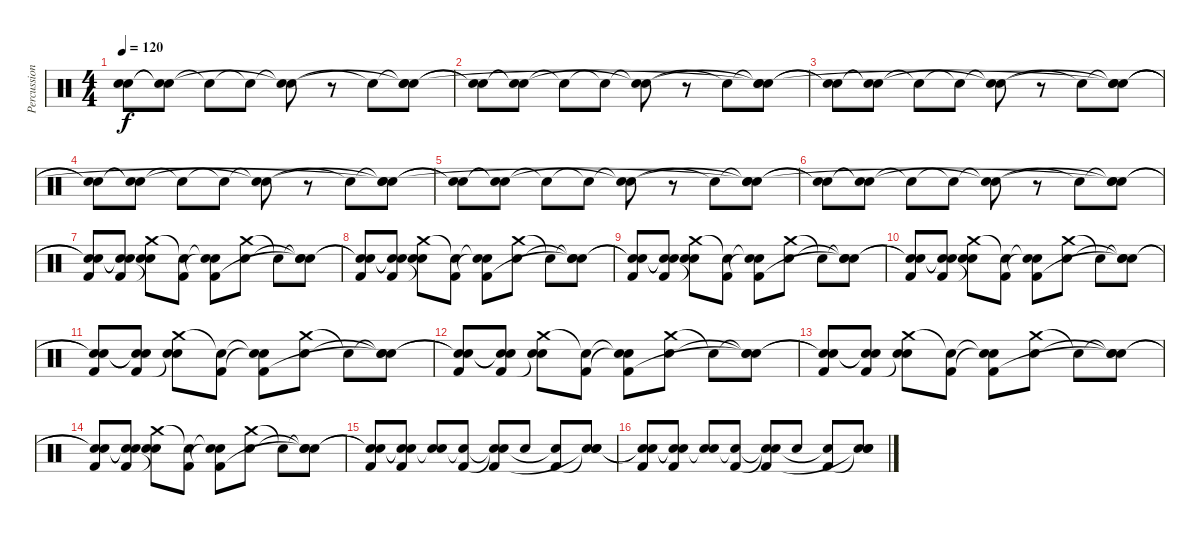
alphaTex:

\track ("Percussion" "Percussion") {instrument percussion}
\staff {score}
\articulation defaults
\ts (4 4)
\tempo 120
\clef neutral
\ks c
("Snare (hit)"{t} "Snare (hit)"{t}).8{dy f} ("Snare (hit)"{t} "Snare (hit)"{t}).8 "Snare (hit)"{t}.8 "Snare (hit)"{t}.8 ("Snare (hit)"{t} "Snare (hit)"{t}).8 r.8 "Snare (hit)"{t}.8 ("Snare (hit)"{t} "Snare (hit)"{t} "Snare (hit)"{t}).8 |
("Snare (hit)"{t} "Snare (hit)"{t}).8 ("Snare (hit)"{t} "Snare (hit)"{t}).8 "Snare (hit)"{t}.8 "Snare (hit)"{t}.8 ("Snare (hit)"{t} "Snare (hit)"{t}).8 r.8 "Snare (hit)"{t}.8 ("Snare (hit)"{t} "Snare (hit)"{t} "Snare (hit)"{t}).8 |
("Snare (hit)"{t} "Snare (hit)"{t}).8 ("Snare (hit)"{t} "Snare (hit)"{t}).8 "Snare (hit)"{t}.8 "Snare (hit)"{t}.8 ("Snare (hit)"{t} "Snare (hit)"{t}).8 r.8 "Snare (hit)"{t}.8 ("Snare (hit)"{t} "Snare (hit)"{t} "Snare (hit)"{t}).8 |
("Snare (hit)"{t} "Snare (hit)"{t}).8 ("Snare (hit)"{t} "Snare (hit)"{t}).8 "Snare (hit)"{t}.8 "Snare (hit)"{t}.8 ("Snare (hit)"{t} "Snare (hit)"{t}).8 r.8 "Snare (hit)"{t}.8 ("Snare (hit)"{t} "Snare (hit)"{t} "Snare (hit)"{t}).8 |
("Snare (hit)"{t} "Snare (hit)"{t}).8 ("Snare (hit)"{t} "Snare (hit)"{t}).8 "Snare (hit)"{t}.8 "Snare (hit)"{t}.8 ("Snare (hit)"{t} "Snare (hit)"{t}).8 r.8 "Snare (hit)"{t}.8 ("Snare (hit)"{t} "Snare (hit)"{t} "Snare (hit)"{t}).8 |
("Snare (hit)"{t} "Snare (hit)"{t}).8 ("Snare (hit)"{t} "Snare (hit)"{t}).8 "Snare (hit)"{t}.8 "Snare (hit)"{t}.8 ("Snare (hit)"{t} "Snare (hit)"{t}).8 r.8 "Snare (hit)"{t}.8 ("Snare (hit)"{t} "Snare (hit)"{t} "Snare (hit)"{t}).8 |
("Snare (hit)"{t} "Snare (hit)"{t} "Kick (hit) 2").8 ("Snare (hit)"{t} "Snare (hit)"{t} "Kick (hit) 2").8 ("Crash medium (hit)" "Snare (hit) 2" "Snare (hit)"{t}).8 ("Snare (hit)"{t} "Kick (hit) 2").8 ("Snare (hit)"{t} "Snare (hit)"{t} "Kick (hit) 2").8 ("Crash medium (hit)" "Snare (hit) 2").8 "Snare (hit)"{t}.8 ("Snare (hit)"{t} "Snare (hit)"{t} "Snare (hit)"{t}).8 |
("Snare (hit)"{t} "Snare (hit)"{t} "Kick (hit) 2").8 ("Snare (hit)"{t} "Snare (hit)"{t} "Kick (hit) 2").8 ("Crash medium (hit)" "Snare (hit) 2" "Snare (hit)"{t}).8 ("Snare (hit)"{t} "Kick (hit) 2").8 ("Snare (hit)"{t} "Snare (hit)"{t} "Kick (hit) 2").8 ("Crash medium (hit)" "Snare (hit) 2").8 "Snare (hit)"{t}.8 ("Snare (hit)"{t} "Snare (hit)"{t} "Snare (hit)"{t}).8 |
("Snare (hit)"{t} "Snare (hit)"{t} "Kick (hit) 2").8 ("Snare (hit)"{t} "Snare (hit)"{t} "Kick (hit) 2").8 ("Crash medium (hit)" "Snare (hit) 2" "Snare (hit)"{t}).8 ("Snare (hit)"{t} "Kick (hit) 2").8 ("Snare (hit)"{t} "Snare (hit)"{t} "Kick (hit) 2").8 ("Crash medium (hit)" "Snare (hit) 2").8 "Snare (hit)"{t}.8 ("Snare (hit)"{t} "Snare (hit)"{t} "Snare (hit)"{t}).8 |
("Snare (hit)"{t} "Snare (hit)"{t} "Kick (hit) 2").8 ("Snare (hit)"{t} "Snare (hit)"{t} "Kick (hit) 2").8 ("Crash medium (hit)" "Snare (hit) 2" "Snare (hit)"{t}).8 ("Snare (hit)"{t} "Kick (hit) 2").8 ("Snare (hit)"{t} "Snare (hit)"{t} "Kick (hit) 2").8 ("Crash medium (hit)" "Snare (hit) 2").8 "Snare (hit)"{t}.8 ("Snare (hit)"{t} "Snare (hit)"{t} "Snare (hit)"{t}).8 |
("Snare (hit)"{t} "Snare (hit)"{t} "Kick (hit) 2").8 ("Snare (hit)"{t} "Snare (hit)"{t} "Kick (hit) 2").8 ("Crash medium (hit)" "Snare (hit) 2" "Snare (hit)"{t}).8 ("Snare (hit)"{t} "Kick (hit) 2").8 ("Snare (hit)"{t} "Snare (hit)"{t} "Kick (hit) 2").8 ("Crash medium (hit)" "Snare (hit) 2").8 "Snare (hit)"{t}.8 ("Snare (hit)"{t} "Snare (hit)"{t} "Snare (hit)"{t}).8 |
("Snare (hit)"{t} "Snare (hit)"{t} "Kick (hit) 2").8 ("Snare (hit)"{t} "Snare (hit)"{t} "Kick (hit) 2").8 ("Crash medium (hit)" "Snare (hit) 2" "Snare (hit)"{t}).8 ("Snare (hit)"{t} "Kick (hit) 2").8 ("Snare (hit)"{t} "Snare (hit)"{t} "Kick (hit) 2").8 ("Crash medium (hit)" "Snare (hit) 2").8 "Snare (hit)"{t}.8 ("Snare (hit)"{t} "Snare (hit)"{t} "Snare (hit)"{t}).8 |
("Snare (hit)"{t} "Snare (hit)"{t} "Kick (hit) 2").8 ("Snare (hit)"{t} "Snare (hit)"{t} "Kick (hit) 2").8 ("Crash medium (hit)" "Snare (hit) 2" "Snare (hit)"{t}).8 ("Snare (hit)"{t} "Kick (hit) 2").8 ("Snare (hit)"{t} "Snare (hit)"{t} "Kick (hit) 2").8 ("Crash medium (hit)" "Snare (hit) 2").8 "Snare (hit)"{t}.8 ("Snare (hit)"{t} "Snare (hit)"{t} "Snare (hit)"{t}).8 |
("Snare (hit)"{t} "Snare (hit)"{t} "Kick (hit) 2").8 ("Snare (hit)"{t} "Snare (hit)"{t} "Kick (hit) 2").8 ("Crash medium (hit)" "Snare (hit) 2" "Snare (hit)"{t}).8 ("Snare (hit)"{t} "Kick (hit) 2").8 ("Snare (hit)"{t} "Snare (hit)"{t} "Kick (hit) 2").8 ("Crash medium (hit)" "Snare (hit) 2").8 "Snare (hit)"{t}.8 ("Snare (hit)"{t} "Snare (hit)"{t} "Snare (hit)"{t}).8 |
("Snare (hit)"{t} "Snare (hit)"{t} "Kick (hit) 2").8 ("Snare (hit)"{t} "Snare (hit)"{t} "Kick (hit) 2").8 ("Snare (hit) 2" "Snare (hit)"{t}).8 ("Snare (hit)"{t} "Kick (hit) 2").8 ("Snare (hit)"{t} "Snare (hit)"{t} "Kick (hit) 2").8 "Snare (hit) 2".8 ("Kick (hit) 2" "Snare (hit)"{t}).8 ("Snare (hit)"{t} "Snare (hit) 2" "Snare (hit)"{t}).8 |
("Snare (hit)"{t} "Snare (hit)"{t} "Kick (hit) 2").8 ("Snare (hit)"{t} "Snare (hit)"{t} "Kick (hit) 2").8 ("Snare (hit) 2" "Snare (hit)"{t}).8 ("Snare (hit)"{t} "Kick (hit) 2").8 ("Snare (hit)"{t} "Snare (hit)"{t} "Kick (hit) 2").8 "Snare (hit) 2".8 ("Kick (hit) 2" "Snare (hit)"{t}).8 ("Snare (hit)"{t} "Snare (hit) 2" "Snare (hit)"{t}).8
